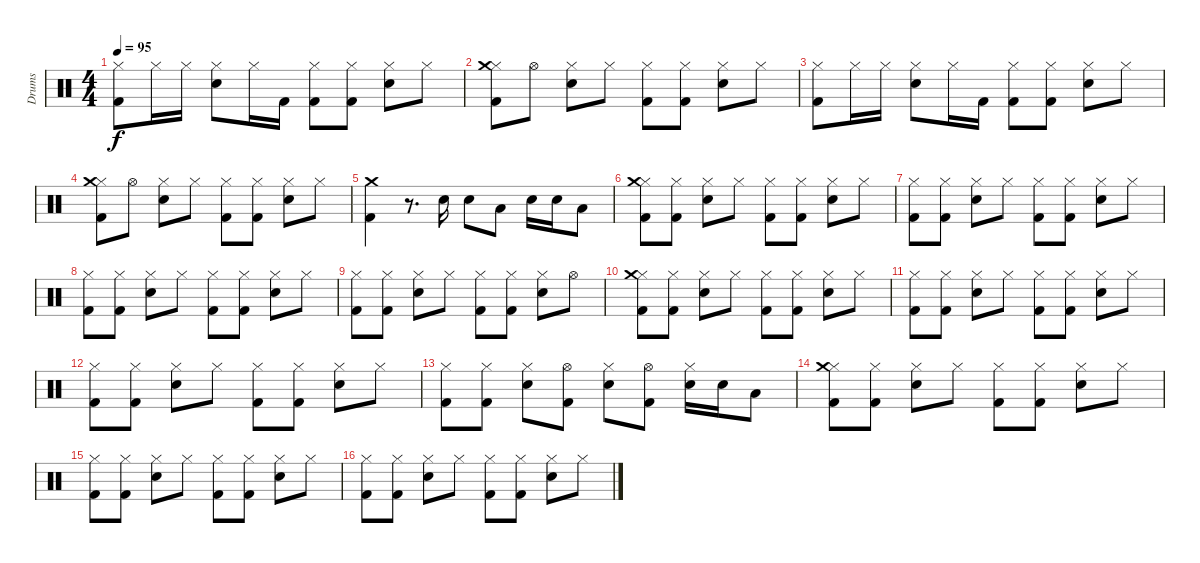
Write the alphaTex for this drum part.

\track ("Drums" "Drums") {instrument percussion}
\staff {score}
\articulation defaults
\ts (4 4)
\tempo 95
\clef neutral
\ks c
("Hi-Hat (closed)" "Kick (hit) 2").8{dy f} "Hi-Hat (closed)".16 "Hi-Hat (closed)".16 ("Hi-Hat (closed)" "Snare (hit) 2").8 "Hi-Hat (closed)".16 "Kick (hit) 2".16 ("Hi-Hat (closed)" "Kick (hit) 2").8 ("Hi-Hat (closed)" "Kick (hit) 2").8 ("Hi-Hat (closed)" "Snare (hit) 2").8 "Hi-Hat (closed)".8 |
("Hi-Hat (closed)" "Crash medium (hit)" "Kick (hit) 2").8 "Hi-Hat (open)".8 ("Hi-Hat (closed)" "Snare (hit) 2").8 "Hi-Hat (closed)".8 ("Hi-Hat (closed)" "Kick (hit) 2").8 ("Hi-Hat (closed)" "Kick (hit) 2").8 ("Hi-Hat (closed)" "Snare (hit) 2").8 "Hi-Hat (closed)".8 |
("Hi-Hat (closed)" "Kick (hit) 2").8 "Hi-Hat (closed)".16 "Hi-Hat (closed)".16 ("Hi-Hat (closed)" "Snare (hit) 2").8 "Hi-Hat (closed)".16 "Kick (hit) 2".16 ("Hi-Hat (closed)" "Kick (hit) 2").8 ("Hi-Hat (closed)" "Kick (hit) 2").8 ("Hi-Hat (closed)" "Snare (hit) 2").8 "Hi-Hat (closed)".8 |
("Hi-Hat (closed)" "Crash medium (hit)" "Kick (hit) 2").8 "Hi-Hat (open)".8 ("Hi-Hat (closed)" "Snare (hit) 2").8 "Hi-Hat (closed)".8 ("Hi-Hat (closed)" "Kick (hit) 2").8 ("Hi-Hat (closed)" "Kick (hit) 2").8 ("Hi-Hat (closed)" "Snare (hit) 2").8 "Hi-Hat (closed)".8 |
("Crash medium (hit)" "Kick (hit) 2").4 r.8{d} "Snare (hit) 2".16 "Snare (hit) 2".8 "Low Tom (hit)".8 "Snare (hit) 2".16 "Snare (hit) 2".16 "Low Tom (hit)".8 |
("Hi-Hat (closed)" "Crash medium (hit)" "Kick (hit) 2").8 ("Hi-Hat (closed)" "Kick (hit) 2").8 ("Hi-Hat (closed)" "Snare (hit) 2").8 "Hi-Hat (closed)".8 ("Hi-Hat (closed)" "Kick (hit) 2").8 ("Hi-Hat (closed)" "Kick (hit) 2").8 ("Hi-Hat (closed)" "Snare (hit) 2").8 "Hi-Hat (closed)".8 |
("Hi-Hat (closed)" "Kick (hit) 2").8 ("Hi-Hat (closed)" "Kick (hit) 2").8 ("Hi-Hat (closed)" "Snare (hit) 2").8 "Hi-Hat (closed)".8 ("Hi-Hat (closed)" "Kick (hit) 2").8 ("Hi-Hat (closed)" "Kick (hit) 2").8 ("Hi-Hat (closed)" "Snare (hit) 2").8 "Hi-Hat (closed)".8 |
("Hi-Hat (closed)" "Kick (hit) 2").8 ("Hi-Hat (closed)" "Kick (hit) 2").8 ("Hi-Hat (closed)" "Snare (hit) 2").8 "Hi-Hat (closed)".8 ("Hi-Hat (closed)" "Kick (hit) 2").8 ("Hi-Hat (closed)" "Kick (hit) 2").8 ("Hi-Hat (closed)" "Snare (hit) 2").8 "Hi-Hat (closed)".8 |
("Hi-Hat (closed)" "Kick (hit) 2").8 ("Hi-Hat (closed)" "Kick (hit) 2").8 ("Hi-Hat (closed)" "Snare (hit) 2").8 "Hi-Hat (closed)".8 ("Hi-Hat (closed)" "Kick (hit) 2").8 ("Hi-Hat (closed)" "Kick (hit) 2").8 ("Hi-Hat (closed)" "Snare (hit) 2").8 "Hi-Hat (open)".8 |
("Hi-Hat (closed)" "Crash medium (hit)" "Kick (hit) 2").8 ("Hi-Hat (closed)" "Kick (hit) 2").8 ("Hi-Hat (closed)" "Snare (hit) 2").8 "Hi-Hat (closed)".8 ("Hi-Hat (closed)" "Kick (hit) 2").8 ("Hi-Hat (closed)" "Kick (hit) 2").8 ("Hi-Hat (closed)" "Snare (hit) 2").8 "Hi-Hat (closed)".8 |
("Hi-Hat (closed)" "Kick (hit) 2").8 ("Hi-Hat (closed)" "Kick (hit) 2").8 ("Hi-Hat (closed)" "Snare (hit) 2").8 "Hi-Hat (closed)".8 ("Hi-Hat (closed)" "Kick (hit) 2").8 ("Hi-Hat (closed)" "Kick (hit) 2").8 ("Hi-Hat (closed)" "Snare (hit) 2").8 "Hi-Hat (closed)".8 |
("Hi-Hat (closed)" "Kick (hit) 2").8 ("Hi-Hat (closed)" "Kick (hit) 2").8 ("Hi-Hat (closed)" "Snare (hit) 2").8 "Hi-Hat (closed)".8 ("Hi-Hat (closed)" "Kick (hit) 2").8 ("Hi-Hat (closed)" "Kick (hit) 2").8 ("Hi-Hat (closed)" "Snare (hit) 2").8 "Hi-Hat (closed)".8 |
("Hi-Hat (closed)" "Kick (hit) 2").8 ("Hi-Hat (closed)" "Kick (hit) 2").8 ("Hi-Hat (closed)" "Snare (hit) 2").8 ("Hi-Hat (open)" "Kick (hit) 2").8 ("Hi-Hat (closed)" "Snare (hit) 2").8 ("Hi-Hat (open)" "Kick (hit) 2").8 ("Hi-Hat (closed)" "Snare (hit) 2").16 "Snare (hit) 2".16 "Low Tom (hit)".8 |
("Hi-Hat (closed)" "Crash medium (hit)" "Kick (hit) 2").8 ("Hi-Hat (closed)" "Kick (hit) 2").8 ("Hi-Hat (closed)" "Snare (hit) 2").8 "Hi-Hat (closed)".8 ("Hi-Hat (closed)" "Kick (hit) 2").8 ("Hi-Hat (closed)" "Kick (hit) 2").8 ("Hi-Hat (closed)" "Snare (hit) 2").8 "Hi-Hat (closed)".8 |
("Hi-Hat (closed)" "Kick (hit) 2").8 ("Hi-Hat (closed)" "Kick (hit) 2").8 ("Hi-Hat (closed)" "Snare (hit) 2").8 "Hi-Hat (closed)".8 ("Hi-Hat (closed)" "Kick (hit) 2").8 ("Hi-Hat (closed)" "Kick (hit) 2").8 ("Hi-Hat (closed)" "Snare (hit) 2").8 "Hi-Hat (closed)".8 |
("Hi-Hat (closed)" "Kick (hit) 2").8 ("Hi-Hat (closed)" "Kick (hit) 2").8 ("Hi-Hat (closed)" "Snare (hit) 2").8 "Hi-Hat (closed)".8 ("Hi-Hat (closed)" "Kick (hit) 2").8 ("Hi-Hat (closed)" "Kick (hit) 2").8 ("Hi-Hat (closed)" "Snare (hit) 2").8 "Hi-Hat (closed)".8
